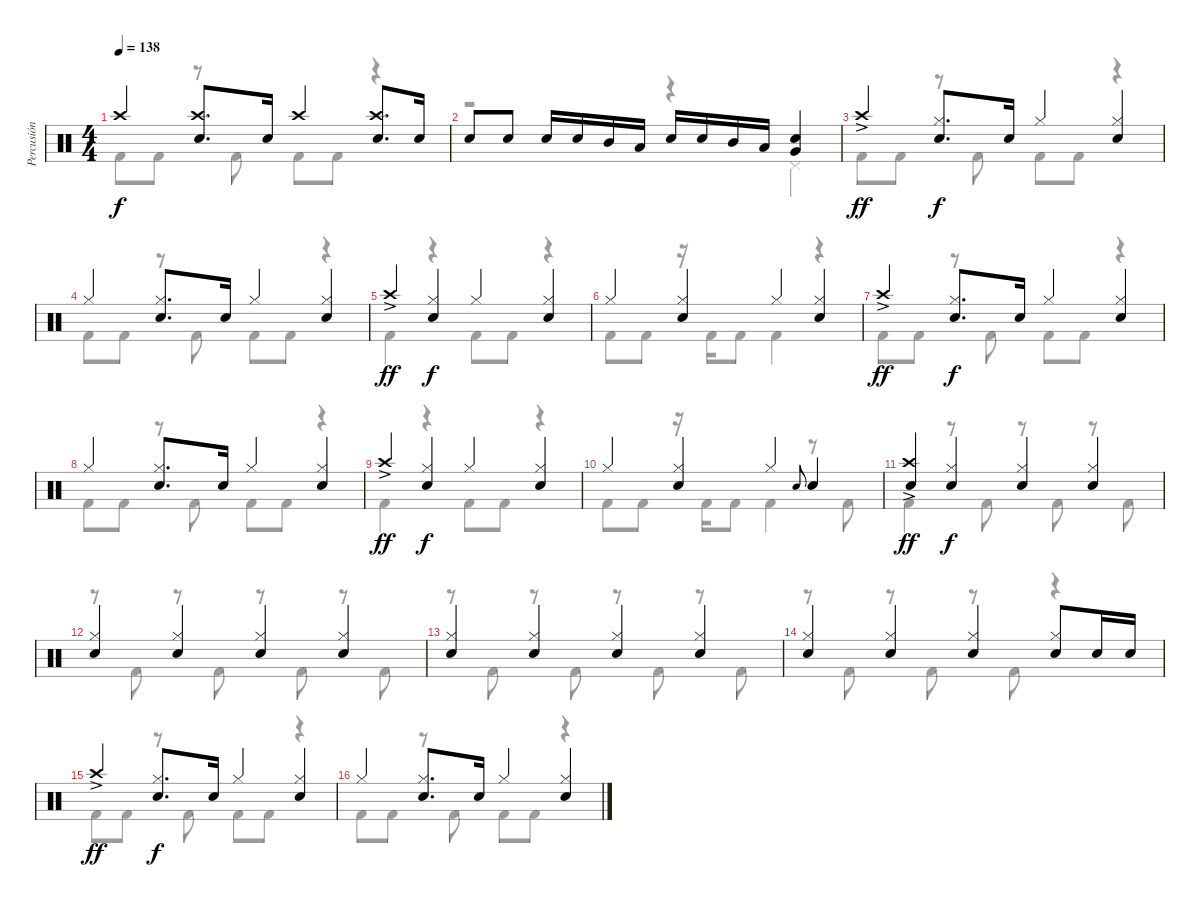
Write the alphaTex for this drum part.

\track ("Percusión" "Percusión") {instrument percussion}
\staff {score}
\articulation defaults
\voice
\ts (4 4)
\tempo 138
\clef neutral
\ks c "Crash high (hit)".4{dy f}
("Electric Snare (hit)" "Crash high (hit)").8{d} "Electric Snare (hit)".16 "Crash high (hit)".4 ("Electric Snare (hit)" "Crash high (hit)").8{d} "Electric Snare (hit)".16 |
"Electric Snare (hit)".8 "Electric Snare (hit)".8 "Electric Snare (hit)".16 "Electric Snare (hit)".16 "Mid Tom (hit)".16 "Low Tom (hit)".16 "Electric Snare (hit)".16 "Electric Snare (hit)".16 "Mid Tom (hit)".16 "Low Tom (hit)".16 ("Electric Snare (hit)" "Very Low Tom (hit)").4 |
"Crash high (hit)"{ac}.4{dy ff} ("Electric Snare (hit)" "Hi-Hat (closed)").8{d dy f} "Electric Snare (hit)".16 "Hi-Hat (closed)".4 ("Electric Snare (hit)" "Hi-Hat (closed)").4 |
"Hi-Hat (closed)".4 ("Electric Snare (hit)" "Hi-Hat (closed)").8{d} "Electric Snare (hit)".16 "Hi-Hat (closed)".4 ("Electric Snare (hit)" "Hi-Hat (closed)").4 |
"Crash high (hit)"{ac}.4{dy ff} ("Electric Snare (hit)" "Hi-Hat (closed)").4{dy f} "Hi-Hat (closed)".4 ("Electric Snare (hit)" "Hi-Hat (closed)").4 |
"Hi-Hat (closed)".4 ("Electric Snare (hit)" "Hi-Hat (closed)").4 "Hi-Hat (closed)".4 ("Electric Snare (hit)" "Hi-Hat (closed)").4 |
"Crash high (hit)"{ac}.4{dy ff} ("Electric Snare (hit)" "Hi-Hat (closed)").8{d dy f} "Electric Snare (hit)".16 "Hi-Hat (closed)".4 ("Electric Snare (hit)" "Hi-Hat (closed)").4 |
"Hi-Hat (closed)".4 ("Electric Snare (hit)" "Hi-Hat (closed)").8{d} "Electric Snare (hit)".16 "Hi-Hat (closed)".4 ("Electric Snare (hit)" "Hi-Hat (closed)").4 |
"Crash high (hit)"{ac}.4{dy ff} ("Electric Snare (hit)" "Hi-Hat (closed)").4{dy f} "Hi-Hat (closed)".4 ("Electric Snare (hit)" "Hi-Hat (closed)").4 |
"Hi-Hat (closed)".4 ("Electric Snare (hit)" "Hi-Hat (closed)").4 "Hi-Hat (closed)".4 "Electric Snare (hit)".8{gr onbeat} "Electric Snare (hit)".4 |
("Electric Snare (hit)" "Crash high (hit)"{ac}).4{dy ff} ("Electric Snare (hit)" "Hi-Hat (closed)").4{dy f} ("Electric Snare (hit)" "Hi-Hat (closed)").4 ("Electric Snare (hit)" "Hi-Hat (closed)").4 |
("Electric Snare (hit)" "Hi-Hat (closed)").4 ("Electric Snare (hit)" "Hi-Hat (closed)").4 ("Electric Snare (hit)" "Hi-Hat (closed)").4 ("Electric Snare (hit)" "Hi-Hat (closed)").4 |
("Electric Snare (hit)" "Hi-Hat (closed)").4 ("Electric Snare (hit)" "Hi-Hat (closed)").4 ("Electric Snare (hit)" "Hi-Hat (closed)").4 ("Electric Snare (hit)" "Hi-Hat (closed)").4 |
("Electric Snare (hit)" "Hi-Hat (closed)").4 ("Electric Snare (hit)" "Hi-Hat (closed)").4 ("Electric Snare (hit)" "Hi-Hat (closed)").4 ("Electric Snare (hit)" "Hi-Hat (closed)").8 "Electric Snare (hit)".16 "Electric Snare (hit)".16 |
"Crash high (hit)"{ac}.4{dy ff} ("Electric Snare (hit)" "Hi-Hat (closed)").8{d dy f} "Electric Snare (hit)".16 "Hi-Hat (closed)".4 ("Electric Snare (hit)" "Hi-Hat (closed)").4 |
"Hi-Hat (closed)".4 ("Electric Snare (hit)" "Hi-Hat (closed)").8{d} "Electric Snare (hit)".16 "Hi-Hat (closed)".4 ("Electric Snare (hit)" "Hi-Hat (closed)").4
\voice
\clef neutral
\ottava regular
\simile none
\ks c "Kick (hit) 2".8{dy f} "Kick (hit) 2".8
r.8 "Kick (hit) 2".8 "Kick (hit) 2".8 "Kick (hit) 2".8 r.4 |
r.2 r.4 "Pedal Hi-Hat (hit)".4 |
"Kick (hit) 2".8 "Kick (hit) 2".8 r.8 "Kick (hit) 2".8 "Kick (hit) 2".8 "Kick (hit) 2".8 r.4 |
"Kick (hit) 2".8 "Kick (hit) 2".8 r.8 "Kick (hit) 2".8 "Kick (hit) 2".8 "Kick (hit) 2".8 r.4 |
"Kick (hit) 2".4 r.4 "Kick (hit) 2".8 "Kick (hit) 2".8 r.4 |
"Kick (hit) 2".8 "Kick (hit) 2".8 r.16 "Kick (hit) 2".16 "Kick (hit) 2".8 "Kick (hit) 2".4 r.4 |
"Kick (hit) 2".8 "Kick (hit) 2".8 r.8 "Kick (hit) 2".8 "Kick (hit) 2".8 "Kick (hit) 2".8 r.4 |
"Kick (hit) 2".8 "Kick (hit) 2".8 r.8 "Kick (hit) 2".8 "Kick (hit) 2".8 "Kick (hit) 2".8 r.4 |
"Kick (hit) 2".4 r.4 "Kick (hit) 2".8 "Kick (hit) 2".8 r.4 |
"Kick (hit) 2".8 "Kick (hit) 2".8 r.16 "Kick (hit) 2".16 "Kick (hit) 2".8 "Kick (hit) 2".4 r.8 "Kick (hit) 2".8 |
"Kick (hit) 2".4 r.8 "Kick (hit) 2".8 r.8 "Kick (hit) 2".8 r.8 "Kick (hit) 2".8 |
r.8 "Kick (hit) 2".8 r.8 "Kick (hit) 2".8 r.8 "Kick (hit) 2".8 r.8 "Kick (hit) 2".8 |
r.8 "Kick (hit) 2".8 r.8 "Kick (hit) 2".8 r.8 "Kick (hit) 2".8 r.8 "Kick (hit) 2".8 |
r.8 "Kick (hit) 2".8 r.8 "Kick (hit) 2".8 r.8 "Kick (hit) 2".8 r.4 |
"Kick (hit) 2".8 "Kick (hit) 2".8 r.8 "Kick (hit) 2".8 "Kick (hit) 2".8 "Kick (hit) 2".8 r.4 |
"Kick (hit) 2".8 "Kick (hit) 2".8 r.8 "Kick (hit) 2".8 "Kick (hit) 2".8 "Kick (hit) 2".8 r.4
